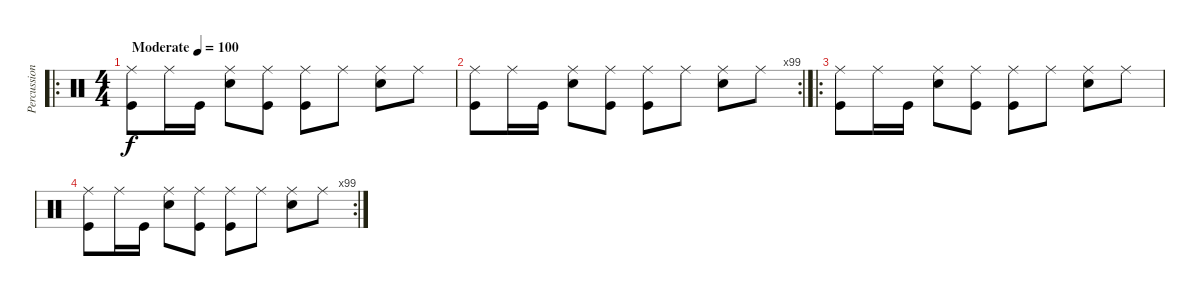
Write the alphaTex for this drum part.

\track ("Percussion" "Percussion") {instrument percussion}
\staff {score}
\articulation defaults
\ro
\ts (4 4)
\tempo (100 "Moderate")
\clef neutral
\ks c
("Ride (middle)" "Kick (hit)").8{dy f} "Ride (middle)".16 "Kick (hit)".16 ("Ride (middle)" "Snare (hit) 2").8 ("Ride (middle)" "Kick (hit)").8 ("Ride (middle)" "Kick (hit)").8 "Ride (middle)".8 ("Ride (middle)" "Snare (hit) 2").8 "Ride (middle)".8 |
\rc 99
("Ride (middle)" "Kick (hit)").8 "Ride (middle)".16 "Kick (hit)".16 ("Ride (middle)" "Snare (hit) 2").8 ("Ride (middle)" "Kick (hit)").8 ("Ride (middle)" "Kick (hit)").8 "Ride (middle)".8 ("Ride (middle)" "Snare (hit) 2").8 "Ride (middle)".8 |
\ro
("Ride (middle)" "Kick (hit)").8 "Ride (middle)".16 "Kick (hit)".16 ("Ride (middle)" "Snare (hit) 2").8 ("Ride (middle)" "Kick (hit)").8 ("Ride (middle)" "Kick (hit)").8 "Ride (middle)".8 ("Ride (middle)" "Snare (hit) 2").8 "Ride (middle)".8 |
\rc 99
("Ride (middle)" "Kick (hit)").8 "Ride (middle)".16 "Kick (hit)".16 ("Ride (middle)" "Snare (hit) 2").8 ("Ride (middle)" "Kick (hit)").8 ("Ride (middle)" "Kick (hit)").8 "Ride (middle)".8 ("Ride (middle)" "Snare (hit) 2").8 "Ride (middle)".8
